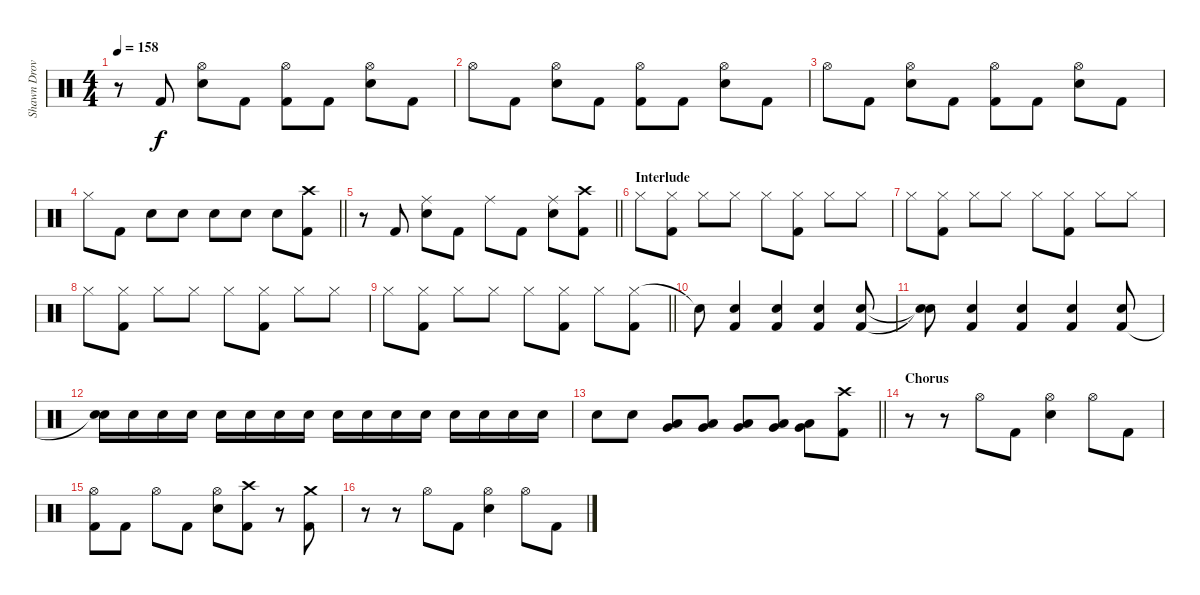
\track ("Shawn Drover" "Shawn Drov") {instrument percussion}
\staff
\articulation defaults
\ts (4 4)
\tempo 158
\clef neutral
\ks c
r.8{dy f} "Kick (hit) 2".8 ("Hi-Hat (open)" "Snare (hit) 2").8 "Kick (hit) 2".8 ("Hi-Hat (open)" "Kick (hit) 2").8 "Kick (hit) 2".8 ("Hi-Hat (open)" "Snare (hit) 2").8 "Kick (hit) 2".8 |
"Hi-Hat (open)".8 "Kick (hit) 2".8 ("Hi-Hat (open)" "Snare (hit) 2").8 "Kick (hit) 2".8 ("Hi-Hat (open)" "Kick (hit) 2").8 "Kick (hit) 2".8 ("Hi-Hat (open)" "Snare (hit) 2").8 "Kick (hit) 2".8 |
"Hi-Hat (open)".8 "Kick (hit) 2".8 ("Hi-Hat (open)" "Snare (hit) 2").8 "Kick (hit) 2".8 ("Hi-Hat (open)" "Kick (hit) 2").8 "Kick (hit) 2".8 ("Hi-Hat (open)" "Snare (hit) 2").8 "Kick (hit) 2".8 |
\barLineRight lightlight "Hi-Hat (closed)".8 "Kick (hit) 2".8 "Snare (hit) 2".8 "Snare (hit) 2".8 "Snare (hit) 2".8 "Snare (hit) 2".8 "Snare (hit) 2".8
("Crash high (hit)" "Kick (hit) 2").8 |
\barLineRight lightlight
r.8 "Kick (hit) 2".8 ("Ride (middle)" "Snare (hit) 2").8 "Kick (hit) 2".8 "Ride (middle)".8 "Kick (hit) 2".8 ("Ride (middle)" "Snare (hit) 2").8 ("Crash high (hit)" "Kick (hit) 2").8 |
\section ("" "Interlude")
"Hi-Hat (closed)".8 ("Hi-Hat (closed)" "Kick (hit) 2").8 "Hi-Hat (closed)".8 "Hi-Hat (closed)".8 "Hi-Hat (closed)".8 ("Hi-Hat (closed)" "Kick (hit) 2").8 "Hi-Hat (closed)".8 "Hi-Hat (closed)".8 |
"Hi-Hat (closed)".8 ("Hi-Hat (closed)" "Kick (hit) 2").8 "Hi-Hat (closed)".8 "Hi-Hat (closed)".8 "Hi-Hat (closed)".8 ("Hi-Hat (closed)" "Kick (hit) 2").8 "Hi-Hat (closed)".8 "Hi-Hat (closed)".8 |
"Hi-Hat (closed)".8 ("Hi-Hat (closed)" "Kick (hit) 2").8 "Hi-Hat (closed)".8 "Hi-Hat (closed)".8 "Hi-Hat (closed)".8 ("Hi-Hat (closed)" "Kick (hit) 2").8 "Hi-Hat (closed)".8 "Hi-Hat (closed)".8 |
\barLineRight lightlight "Hi-Hat (closed)".8
("Hi-Hat (closed)" "Kick (hit) 2").8 "Hi-Hat (closed)".8 "Hi-Hat (closed)".8 "Hi-Hat (closed)".8 ("Hi-Hat (closed)" "Kick (hit) 2").8 "Hi-Hat (closed)".8 ("Hi-Hat (closed)" "Kick (hit) 2").8 |
"Snare (hit)"{t}.8 ("Snare (hit) 2" "Kick (hit) 2").4 ("Snare (hit) 2" "Kick (hit) 2").4 ("Snare (hit) 2" "Kick (hit) 2").4 ("Snare (hit) 2" "Kick (hit) 2").8 |
("Snare (hit)"{t} "Snare (hit)"{t}).8 ("Snare (hit) 2" "Kick (hit) 2").4 ("Snare (hit) 2" "Kick (hit) 2").4 ("Snare (hit) 2" "Kick (hit) 2").4 ("Snare (hit) 2" "Kick (hit) 2").8 |
("Snare (hit) 2" "Snare (hit)"{t}).16 "Snare (hit) 2".16 "Snare (hit) 2".16 "Snare (hit) 2".16 "Snare (hit) 2".16 "Snare (hit) 2".16 "Snare (hit) 2".16 "Snare (hit) 2".16 "Snare (hit) 2".16 "Snare (hit) 2".16 "Snare (hit) 2".16 "Snare (hit) 2".16 "Snare (hit) 2".16 "Snare (hit) 2".16 "Snare (hit) 2".16 "Snare (hit) 2".16 |
\barLineRight lightlight "Snare (hit) 2".8 "Snare (hit) 2".8
("Very Low Tom (hit)" "Low Floor Tom (hit)").8 ("Very Low Tom (hit)" "Low Floor Tom (hit)").8 ("Very Low Tom (hit)" "Low Floor Tom (hit)").8 ("Very Low Tom (hit)" "Low Floor Tom (hit)").8 ("Very Low Tom (hit)" "Low Floor Tom (hit)").8 ("Crash high (hit)" "Kick (hit) 2").8 |
\section ("" "Chorus")
r.8 r.8 "Hi-Hat (open)".8 "Kick (hit) 2".8 ("Hi-Hat (open)" "Snare (hit) 2").4 "Hi-Hat (open)".8 "Kick (hit) 2".8 |
("Hi-Hat (open)" "Kick (hit) 2").8 "Kick (hit) 2".8 "Hi-Hat (open)".8 "Kick (hit) 2".8 ("Hi-Hat (open)" "Snare (hit) 2").8 ("Crash high (hit)" "Kick (hit) 2").8 r.8 ("Crash medium (hit)" "Kick (hit) 2").8 |
r.8 r.8 "Hi-Hat (open)".8 "Kick (hit) 2".8 ("Hi-Hat (open)" "Snare (hit) 2").4 "Hi-Hat (open)".8 "Kick (hit) 2".8
